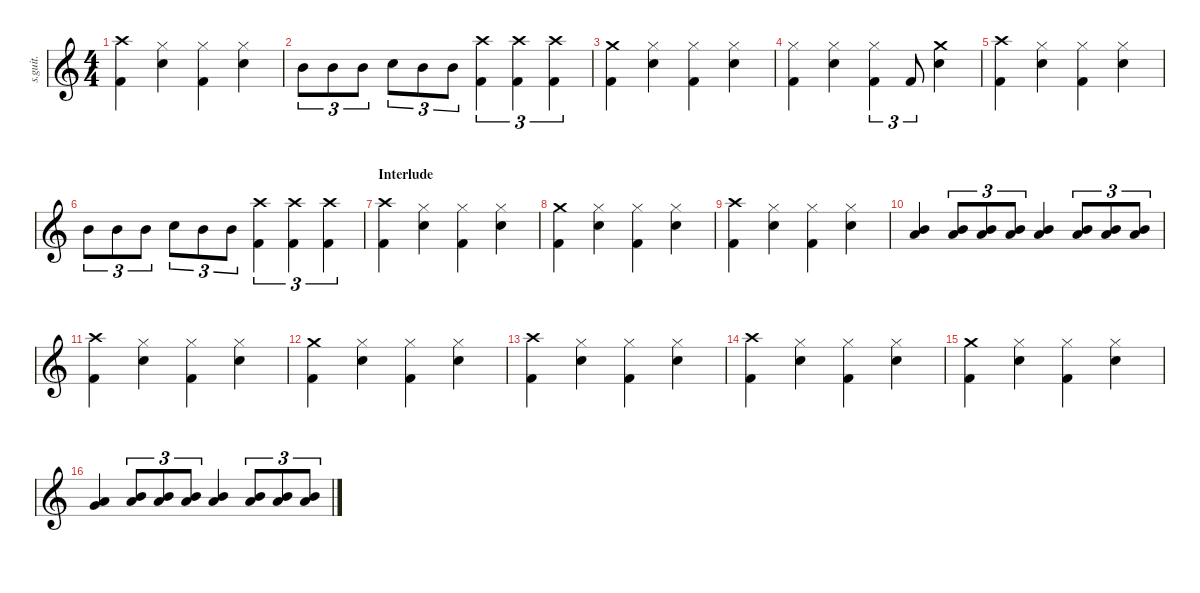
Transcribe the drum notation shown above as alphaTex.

\defaultSystemsLayout 4
\hideDynamics
\bracketExtendMode nobrackets
\track ("Lars Ulrich (Drums)" "s.guit.") {instrument percussion}
\staff {score}
\articulation defaults
\ts (4 4)
\tempo (118 hide)
\clef g2
\ks c
("Crash high (hit)" "Kick (hit) 2").4{lyrics (0 "") lyrics (1 "") lyrics (2 "") lyrics (3 "") lyrics (4 "") dy f} ("Hi-Hat (closed)" "Snare (hit) 2").4{lyrics (0 "") lyrics (1 "") lyrics (2 "") lyrics (3 "") lyrics (4 "")} ("Hi-Hat (closed)" "Kick (hit) 2").4{lyrics (0 "") lyrics (1 "") lyrics (2 "") lyrics (3 "") lyrics (4 "")} ("Hi-Hat (closed)" "Snare (hit) 2").4{lyrics (0 "") lyrics (1 "") lyrics (2 "") lyrics (3 "") lyrics (4 "")} |
"Mid Tom (hit)".8{tu (3 2) lyrics (0 "") lyrics (1 "") lyrics (2 "") lyrics (3 "") lyrics (4 "")} "Mid Tom (hit)".8{tu (3 2) lyrics (0 "") lyrics (1 "") lyrics (2 "") lyrics (3 "") lyrics (4 "")} "Mid Tom (hit)".8{tu (3 2) lyrics (0 "") lyrics (1 "") lyrics (2 "") lyrics (3 "") lyrics (4 "")} "Snare (hit) 2".8{tu (3 2) lyrics (0 "") lyrics (1 "") lyrics (2 "") lyrics (3 "") lyrics (4 "")} "Mid Tom (hit)".8{tu (3 2) lyrics (0 "") lyrics (1 "") lyrics (2 "") lyrics (3 "") lyrics (4 "")} "Mid Tom (hit)".8{tu (3 2) lyrics (0 "") lyrics (1 "") lyrics (2 "") lyrics (3 "") lyrics (4 "")} ("Crash high (hit)" "Kick (hit) 2").4{tu (3 2) lyrics (0 "") lyrics (1 "") lyrics (2 "") lyrics (3 "") lyrics (4 "")} ("Crash high (hit)" "Kick (hit) 2").4{tu (3 2) lyrics (0 "") lyrics (1 "") lyrics (2 "") lyrics (3 "") lyrics (4 "")} ("Crash high (hit)" "Kick (hit) 2").4{tu (3 2) lyrics (0 "") lyrics (1 "") lyrics (2 "") lyrics (3 "") lyrics (4 "")} |
("Crash medium (hit)" "Kick (hit) 2").4{lyrics (0 "") lyrics (1 "") lyrics (2 "") lyrics (3 "") lyrics (4 "")} ("Hi-Hat (closed)" "Snare (hit) 2").4{lyrics (0 "") lyrics (1 "") lyrics (2 "") lyrics (3 "") lyrics (4 "")} ("Hi-Hat (closed)" "Kick (hit) 2").4{lyrics (0 "") lyrics (1 "") lyrics (2 "") lyrics (3 "") lyrics (4 "")} ("Hi-Hat (closed)" "Snare (hit) 2").4{lyrics (0 "") lyrics (1 "") lyrics (2 "") lyrics (3 "") lyrics (4 "")} |
("Hi-Hat (closed)" "Kick (hit) 2").4{lyrics (0 "") lyrics (1 "") lyrics (2 "") lyrics (3 "") lyrics (4 "")} ("Hi-Hat (closed)" "Snare (hit) 2").4{lyrics (0 "") lyrics (1 "") lyrics (2 "") lyrics (3 "") lyrics (4 "")} ("Hi-Hat (closed)" "Kick (hit) 2").4{tu (3 2) lyrics (0 "") lyrics (1 "") lyrics (2 "") lyrics (3 "") lyrics (4 "")} "Kick (hit) 2".8{tu (3 2) lyrics (0 "") lyrics (1 "") lyrics (2 "") lyrics (3 "") lyrics (4 "")} ("Crash medium (hit)" "Snare (hit) 2").4{lyrics (0 "") lyrics (1 "") lyrics (2 "") lyrics (3 "") lyrics (4 "")} |
("Crash high (hit)" "Kick (hit) 2").4{lyrics (0 "") lyrics (1 "") lyrics (2 "") lyrics (3 "") lyrics (4 "")} ("Hi-Hat (closed)" "Snare (hit) 2").4{lyrics (0 "") lyrics (1 "") lyrics (2 "") lyrics (3 "") lyrics (4 "")} ("Hi-Hat (closed)" "Kick (hit) 2").4{lyrics (0 "") lyrics (1 "") lyrics (2 "") lyrics (3 "") lyrics (4 "")} ("Hi-Hat (closed)" "Snare (hit) 2").4{lyrics (0 "") lyrics (1 "") lyrics (2 "") lyrics (3 "") lyrics (4 "")} |
"Mid Tom (hit)".8{tu (3 2) lyrics (0 "") lyrics (1 "") lyrics (2 "") lyrics (3 "") lyrics (4 "")} "Mid Tom (hit)".8{tu (3 2) lyrics (0 "") lyrics (1 "") lyrics (2 "") lyrics (3 "") lyrics (4 "")} "Mid Tom (hit)".8{tu (3 2) lyrics (0 "") lyrics (1 "") lyrics (2 "") lyrics (3 "") lyrics (4 "")} "Snare (hit) 2".8{tu (3 2) lyrics (0 "") lyrics (1 "") lyrics (2 "") lyrics (3 "") lyrics (4 "")} "Mid Tom (hit)".8{tu (3 2) lyrics (0 "") lyrics (1 "") lyrics (2 "") lyrics (3 "") lyrics (4 "")} "Mid Tom (hit)".8{tu (3 2) lyrics (0 "") lyrics (1 "") lyrics (2 "") lyrics (3 "") lyrics (4 "")} ("Crash high (hit)" "Kick (hit) 2").4{tu (3 2) lyrics (0 "") lyrics (1 "") lyrics (2 "") lyrics (3 "") lyrics (4 "")} ("Crash high (hit)" "Kick (hit) 2").4{tu (3 2) lyrics (0 "") lyrics (1 "") lyrics (2 "") lyrics (3 "") lyrics (4 "")} ("Crash high (hit)" "Kick (hit) 2").4{tu (3 2) lyrics (0 "") lyrics (1 "") lyrics (2 "") lyrics (3 "") lyrics (4 "")} |
\section ("" "Interlude")
("Crash high (hit)" "Kick (hit) 2").4{lyrics (0 "") lyrics (1 "") lyrics (2 "") lyrics (3 "") lyrics (4 "")} ("Hi-Hat (closed)" "Snare (hit) 2").4{lyrics (0 "") lyrics (1 "") lyrics (2 "") lyrics (3 "") lyrics (4 "")} ("Hi-Hat (closed)" "Kick (hit) 2").4{lyrics (0 "") lyrics (1 "") lyrics (2 "") lyrics (3 "") lyrics (4 "")} ("Hi-Hat (closed)" "Snare (hit) 2").4{lyrics (0 "") lyrics (1 "") lyrics (2 "") lyrics (3 "") lyrics (4 "")} |
("Crash medium (hit)" "Kick (hit) 2").4{lyrics (0 "") lyrics (1 "") lyrics (2 "") lyrics (3 "") lyrics (4 "")} ("Hi-Hat (closed)" "Snare (hit) 2").4{lyrics (0 "") lyrics (1 "") lyrics (2 "") lyrics (3 "") lyrics (4 "")} ("Hi-Hat (closed)" "Kick (hit) 2").4{lyrics (0 "") lyrics (1 "") lyrics (2 "") lyrics (3 "") lyrics (4 "")} ("Hi-Hat (closed)" "Snare (hit) 2").4{lyrics (0 "") lyrics (1 "") lyrics (2 "") lyrics (3 "") lyrics (4 "")} |
("Crash high (hit)" "Kick (hit) 2").4{lyrics (0 "") lyrics (1 "") lyrics (2 "") lyrics (3 "") lyrics (4 "")} ("Hi-Hat (closed)" "Snare (hit) 2").4{lyrics (0 "") lyrics (1 "") lyrics (2 "") lyrics (3 "") lyrics (4 "")} ("Hi-Hat (closed)" "Kick (hit) 2").4{lyrics (0 "") lyrics (1 "") lyrics (2 "") lyrics (3 "") lyrics (4 "")} ("Hi-Hat (closed)" "Snare (hit) 2").4{lyrics (0 "") lyrics (1 "") lyrics (2 "") lyrics (3 "") lyrics (4 "")} |
("Low Tom (hit)" "Mid Tom (hit)").4{lyrics (0 "") lyrics (1 "") lyrics (2 "") lyrics (3 "") lyrics (4 "")} ("Low Tom (hit)" "Mid Tom (hit)").8{tu (3 2) lyrics (0 "") lyrics (1 "") lyrics (2 "") lyrics (3 "") lyrics (4 "")} ("Low Tom (hit)" "Mid Tom (hit)").8{tu (3 2) lyrics (0 "") lyrics (1 "") lyrics (2 "") lyrics (3 "") lyrics (4 "")} ("Low Tom (hit)" "Mid Tom (hit)").8{tu (3 2) lyrics (0 "") lyrics (1 "") lyrics (2 "") lyrics (3 "") lyrics (4 "")} ("Low Tom (hit)" "Mid Tom (hit)").4{lyrics (0 "") lyrics (1 "") lyrics (2 "") lyrics (3 "") lyrics (4 "")} ("Low Tom (hit)" "Mid Tom (hit)").8{tu (3 2) lyrics (0 "") lyrics (1 "") lyrics (2 "") lyrics (3 "") lyrics (4 "")} ("Low Tom (hit)" "Mid Tom (hit)").8{tu (3 2) lyrics (0 "") lyrics (1 "") lyrics (2 "") lyrics (3 "") lyrics (4 "")} ("Low Tom (hit)" "Mid Tom (hit)").8{tu (3 2) lyrics (0 "") lyrics (1 "") lyrics (2 "") lyrics (3 "") lyrics (4 "")} |
("Crash high (hit)" "Kick (hit) 2").4{lyrics (0 "") lyrics (1 "") lyrics (2 "") lyrics (3 "") lyrics (4 "")} ("Hi-Hat (closed)" "Snare (hit) 2").4{lyrics (0 "") lyrics (1 "") lyrics (2 "") lyrics (3 "") lyrics (4 "")} ("Hi-Hat (closed)" "Kick (hit) 2").4{lyrics (0 "") lyrics (1 "") lyrics (2 "") lyrics (3 "") lyrics (4 "")} ("Hi-Hat (closed)" "Snare (hit) 2").4{lyrics (0 "") lyrics (1 "") lyrics (2 "") lyrics (3 "") lyrics (4 "")} |
("Crash medium (hit)" "Kick (hit) 2").4{lyrics (0 "") lyrics (1 "") lyrics (2 "") lyrics (3 "") lyrics (4 "")} ("Hi-Hat (closed)" "Snare (hit) 2").4{lyrics (0 "") lyrics (1 "") lyrics (2 "") lyrics (3 "") lyrics (4 "")} ("Hi-Hat (closed)" "Kick (hit) 2").4{lyrics (0 "") lyrics (1 "") lyrics (2 "") lyrics (3 "") lyrics (4 "")} ("Hi-Hat (closed)" "Snare (hit) 2").4{lyrics (0 "") lyrics (1 "") lyrics (2 "") lyrics (3 "") lyrics (4 "")} |
("Crash high (hit)" "Kick (hit) 2").4{lyrics (0 "") lyrics (1 "") lyrics (2 "") lyrics (3 "") lyrics (4 "")} ("Hi-Hat (closed)" "Snare (hit) 2").4{lyrics (0 "") lyrics (1 "") lyrics (2 "") lyrics (3 "") lyrics (4 "")} ("Hi-Hat (closed)" "Kick (hit) 2").4{lyrics (0 "") lyrics (1 "") lyrics (2 "") lyrics (3 "") lyrics (4 "")} ("Hi-Hat (closed)" "Snare (hit) 2").4{lyrics (0 "") lyrics (1 "") lyrics (2 "") lyrics (3 "") lyrics (4 "")} |
("Crash high (hit)" "Kick (hit) 2").4{lyrics (0 "") lyrics (1 "") lyrics (2 "") lyrics (3 "") lyrics (4 "")} ("Hi-Hat (closed)" "Snare (hit) 2").4{lyrics (0 "") lyrics (1 "") lyrics (2 "") lyrics (3 "") lyrics (4 "")} ("Hi-Hat (closed)" "Kick (hit) 2").4{lyrics (0 "") lyrics (1 "") lyrics (2 "") lyrics (3 "") lyrics (4 "")} ("Hi-Hat (closed)" "Snare (hit) 2").4{lyrics (0 "") lyrics (1 "") lyrics (2 "") lyrics (3 "") lyrics (4 "")} |
("Crash medium (hit)" "Kick (hit) 2").4{lyrics (0 "") lyrics (1 "") lyrics (2 "") lyrics (3 "") lyrics (4 "")} ("Hi-Hat (closed)" "Snare (hit) 2").4{lyrics (0 "") lyrics (1 "") lyrics (2 "") lyrics (3 "") lyrics (4 "")} ("Hi-Hat (closed)" "Kick (hit) 2").4{lyrics (0 "") lyrics (1 "") lyrics (2 "") lyrics (3 "") lyrics (4 "")} ("Hi-Hat (closed)" "Snare (hit) 2").4{lyrics (0 "") lyrics (1 "") lyrics (2 "") lyrics (3 "") lyrics (4 "")} |
("Low Tom (hit)" "Very Low Tom (hit)").4{lyrics (0 "") lyrics (1 "") lyrics (2 "") lyrics (3 "") lyrics (4 "")} ("Low Tom (hit)" "Mid Tom (hit)").8{tu (3 2) lyrics (0 "") lyrics (1 "") lyrics (2 "") lyrics (3 "") lyrics (4 "")} ("Low Tom (hit)" "Mid Tom (hit)").8{tu (3 2) lyrics (0 "") lyrics (1 "") lyrics (2 "") lyrics (3 "") lyrics (4 "")} ("Low Tom (hit)" "Mid Tom (hit)").8{tu (3 2) lyrics (0 "") lyrics (1 "") lyrics (2 "") lyrics (3 "") lyrics (4 "")} ("Low Tom (hit)" "Mid Tom (hit)").4{lyrics (0 "") lyrics (1 "") lyrics (2 "") lyrics (3 "") lyrics (4 "")} ("Low Tom (hit)" "Mid Tom (hit)").8{tu (3 2) lyrics (0 "") lyrics (1 "") lyrics (2 "") lyrics (3 "") lyrics (4 "")} ("Low Tom (hit)" "Mid Tom (hit)").8{tu (3 2) lyrics (0 "") lyrics (1 "") lyrics (2 "") lyrics (3 "") lyrics (4 "")} ("Low Tom (hit)" "Mid Tom (hit)").8{tu (3 2) lyrics (0 "") lyrics (1 "") lyrics (2 "") lyrics (3 "") lyrics (4 "")}
